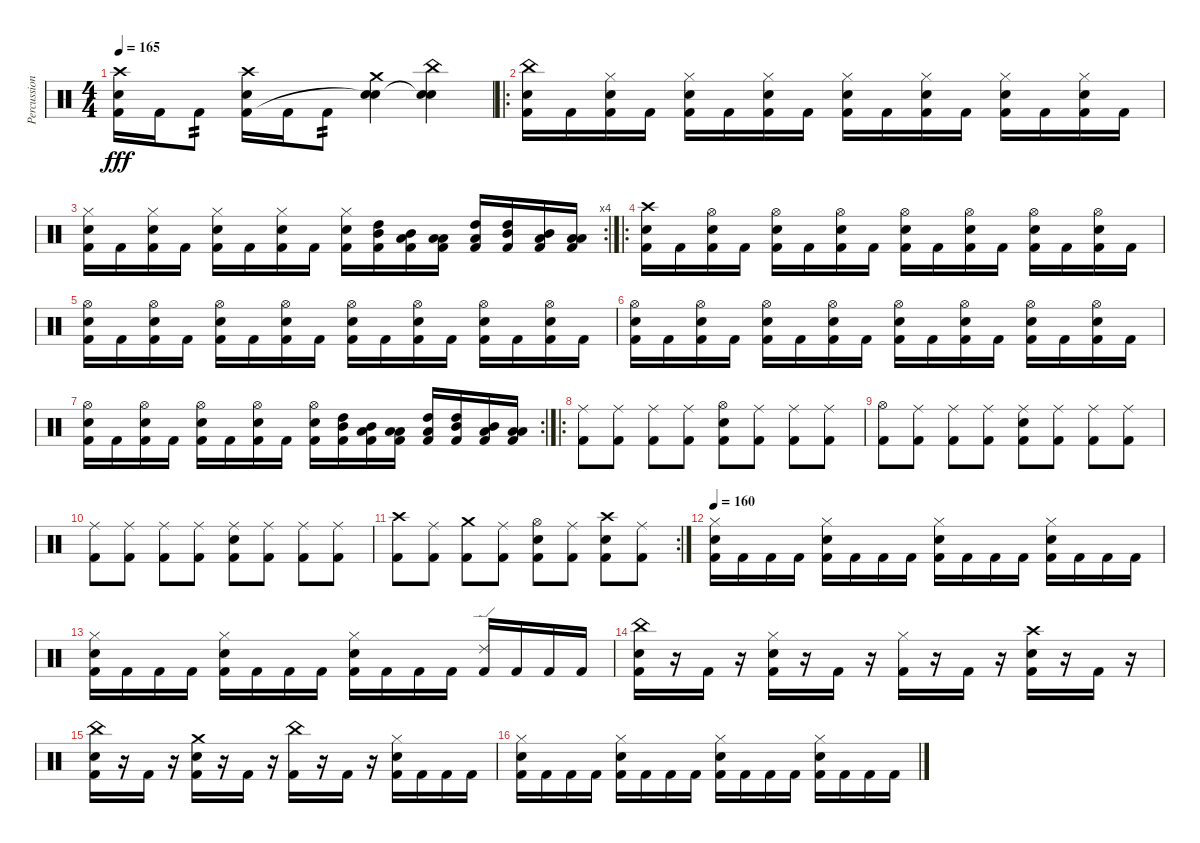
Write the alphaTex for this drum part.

\track ("Percussion" "Percussion") {instrument percussion}
\staff {score}
\articulation defaults
\ts (4 4)
\tempo 165
\clef neutral
\ks c
("Crash high (hit)" "Electric Snare (hit)" "Kick (hit) 2").16{dy fff} "Kick (hit) 2".16 "Kick (hit) 2".8{tp 2} ("Crash high (hit)" "Electric Snare (hit)" "Kick (hit) 2").16 "Kick (hit) 2".16 "Kick (hit) 2".8{tp 2} ("Crash medium (hit)" "Electric Snare (hit)" "Snare (hit)"{t}).4 ("China (hit)" "Electric Snare (hit)" "Snare (hit)"{t}).4 |
\ro
("China (hit)" "Electric Snare (hit)" "Kick (hit) 2").16 "Kick (hit) 2".16 ("Hi-Hat (closed)" "Electric Snare (hit)" "Kick (hit) 2").16 "Kick (hit) 2".16 ("Hi-Hat (closed)" "Electric Snare (hit)" "Kick (hit) 2").16 "Kick (hit) 2".16 ("Hi-Hat (closed)" "Electric Snare (hit)" "Kick (hit) 2").16 "Kick (hit) 2".16 ("Hi-Hat (closed)" "Electric Snare (hit)" "Kick (hit) 2").16 "Kick (hit) 2".16 ("Hi-Hat (closed)" "Electric Snare (hit)" "Kick (hit) 2").16 "Kick (hit) 2".16 ("Hi-Hat (closed)" "Electric Snare (hit)" "Kick (hit) 2").16 "Kick (hit) 2".16 ("Hi-Hat (closed)" "Electric Snare (hit)" "Kick (hit) 2").16 "Kick (hit) 2".16 |
\rc 4
("Hi-Hat (closed)" "Electric Snare (hit)" "Kick (hit) 2").16 "Kick (hit) 2".16 ("Hi-Hat (closed)" "Electric Snare (hit)" "Kick (hit) 2").16 "Kick (hit) 2".16 ("Hi-Hat (closed)" "Electric Snare (hit)" "Kick (hit) 2").16 "Kick (hit) 2".16 ("Hi-Hat (closed)" "Electric Snare (hit)" "Kick (hit) 2").16 "Kick (hit) 2".16 ("Hi-Hat (closed)" "Electric Snare (hit)" "Kick (hit) 2").16 ("High Tom (hit)" "Mid Tom (hit)" "Kick (hit) 2").16 ("Mid Tom (hit)" "Low Tom (hit)" "Kick (hit) 2").16 ("Low Tom (hit)" "Low Floor Tom (hit)" "Kick (hit) 2").16 ("Low Floor Tom (hit)" "High Tom (hit)" "Kick (hit) 2").16 ("High Tom (hit)" "Mid Tom (hit)" "Kick (hit) 2").16 ("Mid Tom (hit)" "Low Tom (hit)" "Kick (hit) 2").16 ("Low Tom (hit)" "Low Floor Tom (hit)" "Kick (hit) 2").16 |
\ro
("Crash high (hit)" "Electric Snare (hit)" "Kick (hit) 2").16 "Kick (hit) 2".16 ("Hi-Hat (open)" "Electric Snare (hit)" "Kick (hit) 2").16 "Kick (hit) 2".16 ("Hi-Hat (open)" "Electric Snare (hit)" "Kick (hit) 2").16 "Kick (hit) 2".16 ("Hi-Hat (open)" "Electric Snare (hit)" "Kick (hit) 2").16 "Kick (hit) 2".16 ("Hi-Hat (open)" "Electric Snare (hit)" "Kick (hit) 2").16 "Kick (hit) 2".16 ("Hi-Hat (open)" "Electric Snare (hit)" "Kick (hit) 2").16 "Kick (hit) 2".16 ("Hi-Hat (open)" "Electric Snare (hit)" "Kick (hit) 2").16 "Kick (hit) 2".16 ("Hi-Hat (open)" "Electric Snare (hit)" "Kick (hit) 2").16 "Kick (hit) 2".16 |
("Hi-Hat (open)" "Electric Snare (hit)" "Kick (hit) 2").16 "Kick (hit) 2".16 ("Hi-Hat (open)" "Electric Snare (hit)" "Kick (hit) 2").16 "Kick (hit) 2".16 ("Hi-Hat (open)" "Electric Snare (hit)" "Kick (hit) 2").16 "Kick (hit) 2".16 ("Hi-Hat (open)" "Electric Snare (hit)" "Kick (hit) 2").16 "Kick (hit) 2".16 ("Hi-Hat (open)" "Electric Snare (hit)" "Kick (hit) 2").16 "Kick (hit) 2".16 ("Hi-Hat (open)" "Electric Snare (hit)" "Kick (hit) 2").16 "Kick (hit) 2".16 ("Hi-Hat (open)" "Electric Snare (hit)" "Kick (hit) 2").16 "Kick (hit) 2".16 ("Hi-Hat (open)" "Electric Snare (hit)" "Kick (hit) 2").16 "Kick (hit) 2".16 |
("Hi-Hat (open)" "Electric Snare (hit)" "Kick (hit) 2").16 "Kick (hit) 2".16 ("Hi-Hat (open)" "Electric Snare (hit)" "Kick (hit) 2").16 "Kick (hit) 2".16 ("Hi-Hat (open)" "Electric Snare (hit)" "Kick (hit) 2").16 "Kick (hit) 2".16 ("Hi-Hat (open)" "Electric Snare (hit)" "Kick (hit) 2").16 "Kick (hit) 2".16 ("Hi-Hat (open)" "Electric Snare (hit)" "Kick (hit) 2").16 "Kick (hit) 2".16 ("Hi-Hat (open)" "Electric Snare (hit)" "Kick (hit) 2").16 "Kick (hit) 2".16 ("Hi-Hat (open)" "Electric Snare (hit)" "Kick (hit) 2").16 "Kick (hit) 2".16 ("Hi-Hat (open)" "Electric Snare (hit)" "Kick (hit) 2").16 "Kick (hit) 2".16 |
\rc 2
("Hi-Hat (open)" "Electric Snare (hit)" "Kick (hit) 2").16 "Kick (hit) 2".16 ("Hi-Hat (open)" "Electric Snare (hit)" "Kick (hit) 2").16 "Kick (hit) 2".16 ("Hi-Hat (open)" "Electric Snare (hit)" "Kick (hit) 2").16 "Kick (hit) 2".16 ("Hi-Hat (open)" "Electric Snare (hit)" "Kick (hit) 2").16 "Kick (hit) 2".16 ("Hi-Hat (open)" "Electric Snare (hit)" "Kick (hit) 2").16 ("High Tom (hit)" "Mid Tom (hit)" "Kick (hit) 2").16 ("Mid Tom (hit)" "Low Tom (hit)" "Kick (hit) 2").16 ("Low Tom (hit)" "Low Floor Tom (hit)" "Kick (hit) 2").16 ("Low Floor Tom (hit)" "High Tom (hit)" "Kick (hit) 2").16 ("High Tom (hit)" "Mid Tom (hit)" "Kick (hit) 2").16 ("Mid Tom (hit)" "Low Tom (hit)" "Kick (hit) 2").16 ("Low Tom (hit)" "Low Floor Tom (hit)" "Kick (hit) 2").16 |
\ro
("Ride (middle)" "Kick (hit) 2").8 ("Ride (middle)" "Kick (hit) 2").8 ("Ride (middle)" "Kick (hit) 2").8 ("Ride (middle)" "Kick (hit) 2").8 ("Hi-Hat (open)" "Electric Snare (hit)" "Kick (hit) 2").8 ("Ride (middle)" "Kick (hit) 2").8 ("Ride (middle)" "Kick (hit) 2").8 ("Ride (middle)" "Kick (hit) 2").8 |
("Hi-Hat (open)" "Kick (hit) 2").8 ("Ride (middle)" "Kick (hit) 2").8 ("Ride (middle)" "Kick (hit) 2").8 ("Ride (middle)" "Kick (hit) 2").8 ("Ride (middle)" "Electric Snare (hit)" "Kick (hit) 2").8 ("Ride (middle)" "Kick (hit) 2").8 ("Ride (middle)" "Kick (hit) 2").8 ("Ride (middle)" "Kick (hit) 2").8 |
("Ride (middle)" "Kick (hit) 2").8 ("Ride (middle)" "Kick (hit) 2").8 ("Ride (middle)" "Kick (hit) 2").8 ("Ride (middle)" "Kick (hit) 2").8 ("Ride (middle)" "Electric Snare (hit)" "Kick (hit) 2").8 ("Ride (middle)" "Kick (hit) 2").8 ("Ride (middle)" "Kick (hit) 2").8 ("Ride (middle)" "Kick (hit) 2").8 |
\rc 2
("Crash high (hit)" "Kick (hit) 2").8 ("Ride (middle)" "Kick (hit) 2").8 ("Crash medium (hit)" "Kick (hit) 2").8 ("Ride (middle)" "Kick (hit) 2").8 ("Hi-Hat (open)" "Electric Snare (hit)" "Kick (hit) 2").8 ("Ride (middle)" "Kick (hit) 2").8 ("Crash high (hit)" "Electric Snare (hit)" "Kick (hit) 2").8 ("Ride (middle)" "Kick (hit) 2").8 |
\tempo 190
\tempo 160
("Hi-Hat (closed)" "Electric Snare (hit)" "Kick (hit) 2").16 "Kick (hit) 2".16 "Kick (hit) 2".16 "Kick (hit) 2".16 ("Hi-Hat (closed)" "Electric Snare (hit)" "Kick (hit) 2").16 "Kick (hit) 2".16 "Kick (hit) 2".16 "Kick (hit) 2".16 ("Hi-Hat (closed)" "Electric Snare (hit)" "Kick (hit) 2").16 "Kick (hit) 2".16 "Kick (hit) 2".16 "Kick (hit) 2".16 ("Hi-Hat (closed)" "Electric Snare (hit)" "Kick (hit) 2").16 "Kick (hit) 2".16 "Kick (hit) 2".16 "Kick (hit) 2".16 |
("Hi-Hat (closed)" "Electric Snare (hit)" "Kick (hit) 2").16 "Kick (hit) 2".16 "Kick (hit) 2".16 "Kick (hit) 2".16 ("Hi-Hat (closed)" "Electric Snare (hit)" "Kick (hit) 2").16 "Kick (hit) 2".16 "Kick (hit) 2".16 "Kick (hit) 2".16 ("Hi-Hat (closed)" "Electric Snare (hit)" "Kick (hit) 2").16 "Kick (hit) 2".16 "Kick (hit) 2".16 "Kick (hit) 2".16 ("Ride (edge) 2" "Kick (hit) 2").16 "Kick (hit) 2".16 "Kick (hit) 2".16 "Kick (hit) 2".16 |
("China (hit)" "Electric Snare (hit)" "Kick (hit) 2").16 r.16 "Kick (hit) 2".16 r.16 ("Hi-Hat (closed)" "Electric Snare (hit)" "Kick (hit) 2").16 r.16 "Kick (hit) 2".16 r.16 ("Hi-Hat (closed)" "Kick (hit) 2").16 r.16 "Kick (hit) 2".16 r.16 ("Crash high (hit)" "Electric Snare (hit)" "Kick (hit) 2").16 r.16 "Kick (hit) 2".16 r.16 |
("China (hit)" "Electric Snare (hit)" "Kick (hit) 2").16 r.16 "Kick (hit) 2".16 r.16 ("Crash medium (hit)" "Electric Snare (hit)" "Kick (hit) 2").16 r.16 "Kick (hit) 2".16 r.16 ("China (hit)" "Kick (hit) 2").16 r.16 "Kick (hit) 2".16 r.16 ("Hi-Hat (closed)" "Electric Snare (hit)" "Kick (hit) 2").16 "Kick (hit) 2".16 "Kick (hit) 2".16 "Kick (hit) 2".16 |
("Hi-Hat (closed)" "Electric Snare (hit)" "Kick (hit) 2").16 "Kick (hit) 2".16 "Kick (hit) 2".16 "Kick (hit) 2".16 ("Hi-Hat (closed)" "Electric Snare (hit)" "Kick (hit) 2").16 "Kick (hit) 2".16 "Kick (hit) 2".16 "Kick (hit) 2".16 ("Hi-Hat (closed)" "Electric Snare (hit)" "Kick (hit) 2").16 "Kick (hit) 2".16 "Kick (hit) 2".16 "Kick (hit) 2".16 ("Hi-Hat (closed)" "Electric Snare (hit)" "Kick (hit) 2").16 "Kick (hit) 2".16 "Kick (hit) 2".16 "Kick (hit) 2".16
